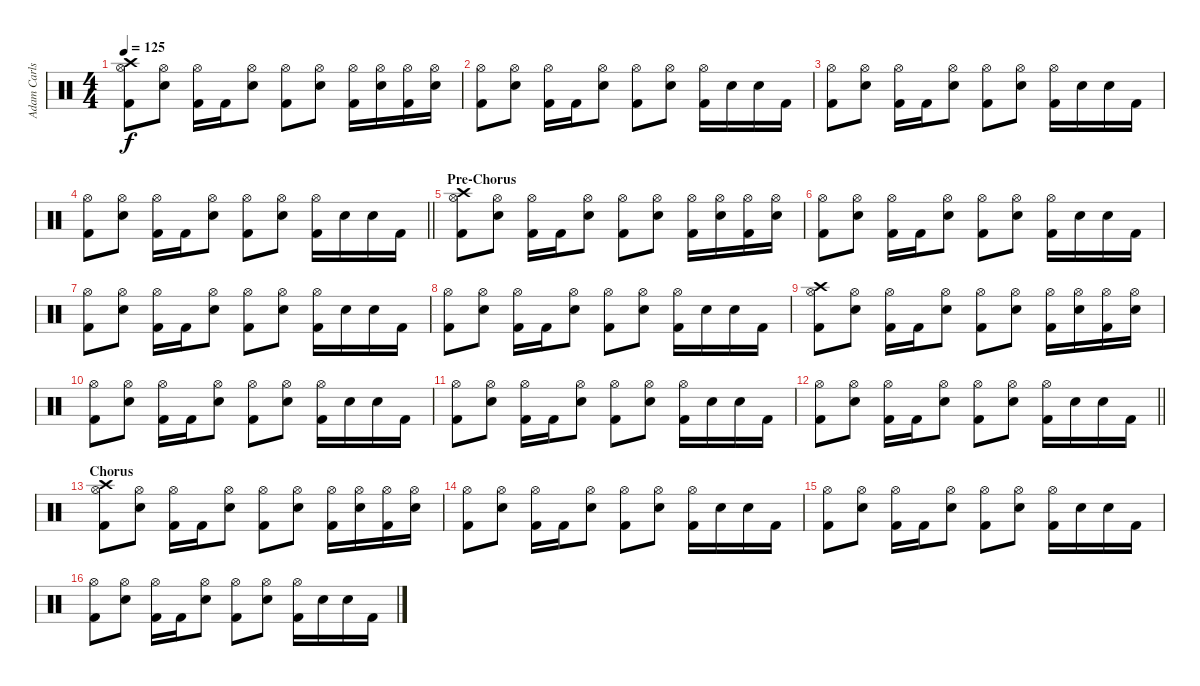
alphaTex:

\track ("Adam Carlson" "Adam Carls") {instrument percussion}
\staff {score}
\articulation defaults
\ts (4 4)
\tempo 125
\clef neutral
\ks c
("Crash high (hit)" "Hi-Hat (open)" "Kick (hit) 2").8{dy f} ("Hi-Hat (open)" "Electric Snare (hit)").8 ("Hi-Hat (open)" "Kick (hit) 2").16 "Kick (hit) 2".16 ("Hi-Hat (open)" "Electric Snare (hit)").8 ("Hi-Hat (open)" "Kick (hit) 2").8 ("Hi-Hat (open)" "Electric Snare (hit)").8 ("Hi-Hat (open)" "Kick (hit) 2").16 ("Hi-Hat (open)" "Electric Snare (hit)").16 ("Hi-Hat (open)" "Kick (hit) 2").16 ("Electric Snare (hit)" "Hi-Hat (open)").16 |
("Hi-Hat (open)" "Kick (hit) 2").8 ("Hi-Hat (open)" "Electric Snare (hit)").8 ("Hi-Hat (open)" "Kick (hit) 2").16 "Kick (hit) 2".16 ("Hi-Hat (open)" "Electric Snare (hit)").8 ("Hi-Hat (open)" "Kick (hit) 2").8 ("Hi-Hat (open)" "Electric Snare (hit)").8 ("Hi-Hat (open)" "Kick (hit) 2").16 "Electric Snare (hit)".16 "Electric Snare (hit)".16 "Kick (hit) 2".16 |
("Hi-Hat (open)" "Kick (hit) 2").8 ("Hi-Hat (open)" "Electric Snare (hit)").8 ("Hi-Hat (open)" "Kick (hit) 2").16 "Kick (hit) 2".16 ("Hi-Hat (open)" "Electric Snare (hit)").8 ("Hi-Hat (open)" "Kick (hit) 2").8 ("Hi-Hat (open)" "Electric Snare (hit)").8 ("Hi-Hat (open)" "Kick (hit) 2").16 "Electric Snare (hit)".16 "Electric Snare (hit)".16 "Kick (hit) 2".16 |
\barLineRight lightlight
("Hi-Hat (open)" "Kick (hit) 2").8 ("Hi-Hat (open)" "Electric Snare (hit)").8 ("Hi-Hat (open)" "Kick (hit) 2").16 "Kick (hit) 2".16 ("Hi-Hat (open)" "Electric Snare (hit)").8 ("Hi-Hat (open)" "Kick (hit) 2").8 ("Hi-Hat (open)" "Electric Snare (hit)").8 ("Hi-Hat (open)" "Kick (hit) 2").16 "Electric Snare (hit)".16 "Electric Snare (hit)".16 "Kick (hit) 2".16 |
\section ("" "Pre-Chorus")
("Crash high (hit)" "Hi-Hat (open)" "Kick (hit) 2").8 ("Hi-Hat (open)" "Electric Snare (hit)").8 ("Hi-Hat (open)" "Kick (hit) 2").16 "Kick (hit) 2".16 ("Hi-Hat (open)" "Electric Snare (hit)").8 ("Hi-Hat (open)" "Kick (hit) 2").8 ("Hi-Hat (open)" "Electric Snare (hit)").8 ("Hi-Hat (open)" "Kick (hit) 2").16 ("Hi-Hat (open)" "Electric Snare (hit)").16 ("Hi-Hat (open)" "Kick (hit) 2").16 ("Electric Snare (hit)" "Hi-Hat (open)").16 |
("Hi-Hat (open)" "Kick (hit) 2").8 ("Hi-Hat (open)" "Electric Snare (hit)").8 ("Hi-Hat (open)" "Kick (hit) 2").16 "Kick (hit) 2".16 ("Hi-Hat (open)" "Electric Snare (hit)").8 ("Hi-Hat (open)" "Kick (hit) 2").8 ("Hi-Hat (open)" "Electric Snare (hit)").8 ("Hi-Hat (open)" "Kick (hit) 2").16 "Electric Snare (hit)".16 "Electric Snare (hit)".16 "Kick (hit) 2".16 |
("Hi-Hat (open)" "Kick (hit) 2").8 ("Hi-Hat (open)" "Electric Snare (hit)").8 ("Hi-Hat (open)" "Kick (hit) 2").16 "Kick (hit) 2".16 ("Hi-Hat (open)" "Electric Snare (hit)").8 ("Hi-Hat (open)" "Kick (hit) 2").8 ("Hi-Hat (open)" "Electric Snare (hit)").8 ("Hi-Hat (open)" "Kick (hit) 2").16 "Electric Snare (hit)".16 "Electric Snare (hit)".16 "Kick (hit) 2".16 |
("Hi-Hat (open)" "Kick (hit) 2").8 ("Hi-Hat (open)" "Electric Snare (hit)").8 ("Hi-Hat (open)" "Kick (hit) 2").16 "Kick (hit) 2".16 ("Hi-Hat (open)" "Electric Snare (hit)").8 ("Hi-Hat (open)" "Kick (hit) 2").8 ("Hi-Hat (open)" "Electric Snare (hit)").8 ("Hi-Hat (open)" "Kick (hit) 2").16 "Electric Snare (hit)".16 "Electric Snare (hit)".16 "Kick (hit) 2".16 |
("Crash high (hit)" "Hi-Hat (open)" "Kick (hit) 2").8 ("Hi-Hat (open)" "Electric Snare (hit)").8 ("Hi-Hat (open)" "Kick (hit) 2").16 "Kick (hit) 2".16 ("Hi-Hat (open)" "Electric Snare (hit)").8 ("Hi-Hat (open)" "Kick (hit) 2").8 ("Hi-Hat (open)" "Electric Snare (hit)").8 ("Hi-Hat (open)" "Kick (hit) 2").16 ("Hi-Hat (open)" "Electric Snare (hit)").16 ("Hi-Hat (open)" "Kick (hit) 2").16 ("Electric Snare (hit)" "Hi-Hat (open)").16 |
("Hi-Hat (open)" "Kick (hit) 2").8 ("Hi-Hat (open)" "Electric Snare (hit)").8 ("Hi-Hat (open)" "Kick (hit) 2").16 "Kick (hit) 2".16 ("Hi-Hat (open)" "Electric Snare (hit)").8 ("Hi-Hat (open)" "Kick (hit) 2").8 ("Hi-Hat (open)" "Electric Snare (hit)").8 ("Hi-Hat (open)" "Kick (hit) 2").16 "Electric Snare (hit)".16 "Electric Snare (hit)".16 "Kick (hit) 2".16 |
("Hi-Hat (open)" "Kick (hit) 2").8 ("Hi-Hat (open)" "Electric Snare (hit)").8 ("Hi-Hat (open)" "Kick (hit) 2").16 "Kick (hit) 2".16 ("Hi-Hat (open)" "Electric Snare (hit)").8 ("Hi-Hat (open)" "Kick (hit) 2").8 ("Hi-Hat (open)" "Electric Snare (hit)").8 ("Hi-Hat (open)" "Kick (hit) 2").16 "Electric Snare (hit)".16 "Electric Snare (hit)".16 "Kick (hit) 2".16 |
\barLineRight lightlight
("Hi-Hat (open)" "Kick (hit) 2").8 ("Hi-Hat (open)" "Electric Snare (hit)").8 ("Hi-Hat (open)" "Kick (hit) 2").16 "Kick (hit) 2".16 ("Hi-Hat (open)" "Electric Snare (hit)").8 ("Hi-Hat (open)" "Kick (hit) 2").8 ("Hi-Hat (open)" "Electric Snare (hit)").8 ("Hi-Hat (open)" "Kick (hit) 2").16 "Electric Snare (hit)".16 "Electric Snare (hit)".16 "Kick (hit) 2".16 |
\section ("" "Chorus")
("Crash high (hit)" "Hi-Hat (open)" "Kick (hit) 2").8 ("Hi-Hat (open)" "Electric Snare (hit)").8 ("Hi-Hat (open)" "Kick (hit) 2").16 "Kick (hit) 2".16 ("Hi-Hat (open)" "Electric Snare (hit)").8 ("Hi-Hat (open)" "Kick (hit) 2").8 ("Hi-Hat (open)" "Electric Snare (hit)").8 ("Hi-Hat (open)" "Kick (hit) 2").16 ("Hi-Hat (open)" "Electric Snare (hit)").16 ("Hi-Hat (open)" "Kick (hit) 2").16 ("Electric Snare (hit)" "Hi-Hat (open)").16 |
("Hi-Hat (open)" "Kick (hit) 2").8 ("Hi-Hat (open)" "Electric Snare (hit)").8 ("Hi-Hat (open)" "Kick (hit) 2").16 "Kick (hit) 2".16 ("Hi-Hat (open)" "Electric Snare (hit)").8 ("Hi-Hat (open)" "Kick (hit) 2").8 ("Hi-Hat (open)" "Electric Snare (hit)").8 ("Hi-Hat (open)" "Kick (hit) 2").16 "Electric Snare (hit)".16 "Electric Snare (hit)".16 "Kick (hit) 2".16 |
("Hi-Hat (open)" "Kick (hit) 2").8 ("Hi-Hat (open)" "Electric Snare (hit)").8 ("Hi-Hat (open)" "Kick (hit) 2").16 "Kick (hit) 2".16 ("Hi-Hat (open)" "Electric Snare (hit)").8 ("Hi-Hat (open)" "Kick (hit) 2").8 ("Hi-Hat (open)" "Electric Snare (hit)").8 ("Hi-Hat (open)" "Kick (hit) 2").16 "Electric Snare (hit)".16 "Electric Snare (hit)".16 "Kick (hit) 2".16 |
("Hi-Hat (open)" "Kick (hit) 2").8 ("Hi-Hat (open)" "Electric Snare (hit)").8 ("Hi-Hat (open)" "Kick (hit) 2").16 "Kick (hit) 2".16 ("Hi-Hat (open)" "Electric Snare (hit)").8 ("Hi-Hat (open)" "Kick (hit) 2").8 ("Hi-Hat (open)" "Electric Snare (hit)").8 ("Hi-Hat (open)" "Kick (hit) 2").16 "Electric Snare (hit)".16 "Electric Snare (hit)".16 "Kick (hit) 2".16
